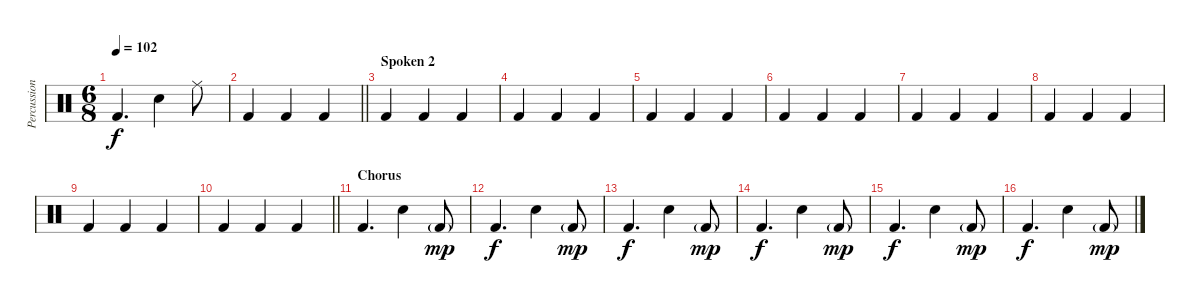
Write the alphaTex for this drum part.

\track ("Percussion" "Percussion") {instrument percussion}
\staff {score}
\articulation defaults
\ts (6 8)
\tempo 102
\clef neutral
\ks c "Kick (hit) 2".4{d dy f} "Snare (hit) 2".4 "Ride (middle)".8
|
\barLineRight lightlight "Kick (hit) 2".4 "Kick (hit) 2".4 "Kick (hit) 2".4
|
\section ("" "Spoken 2")
"Kick (hit) 2".4 "Kick (hit) 2".4 "Kick (hit) 2".4 |
"Kick (hit) 2".4 "Kick (hit) 2".4 "Kick (hit) 2".4 |
"Kick (hit) 2".4 "Kick (hit) 2".4 "Kick (hit) 2".4 |
"Kick (hit) 2".4 "Kick (hit) 2".4 "Kick (hit) 2".4 |
"Kick (hit) 2".4 "Kick (hit) 2".4 "Kick (hit) 2".4 |
"Kick (hit) 2".4 "Kick (hit) 2".4 "Kick (hit) 2".4 |
"Kick (hit) 2".4 "Kick (hit) 2".4 "Kick (hit) 2".4 |
\barLineRight lightlight "Kick (hit) 2".4 "Kick (hit) 2".4 "Kick (hit) 2".4
|
\section ("" "Chorus")
"Kick (hit) 2".4{d} "Snare (hit) 2".4 "Kick (hit) 2"{g}.8{dy mp} |
"Kick (hit) 2".4{d dy f} "Snare (hit) 2".4 "Kick (hit) 2"{g}.8{dy mp} |
"Kick (hit) 2".4{d dy f} "Snare (hit) 2".4 "Kick (hit) 2"{g}.8{dy mp} |
"Kick (hit) 2".4{d dy f} "Snare (hit) 2".4 "Kick (hit) 2"{g}.8{dy mp} |
"Kick (hit) 2".4{d dy f} "Snare (hit) 2".4 "Kick (hit) 2"{g}.8{dy mp} |
"Kick (hit) 2".4{d dy f} "Snare (hit) 2".4 "Kick (hit) 2"{g}.8{dy mp}
